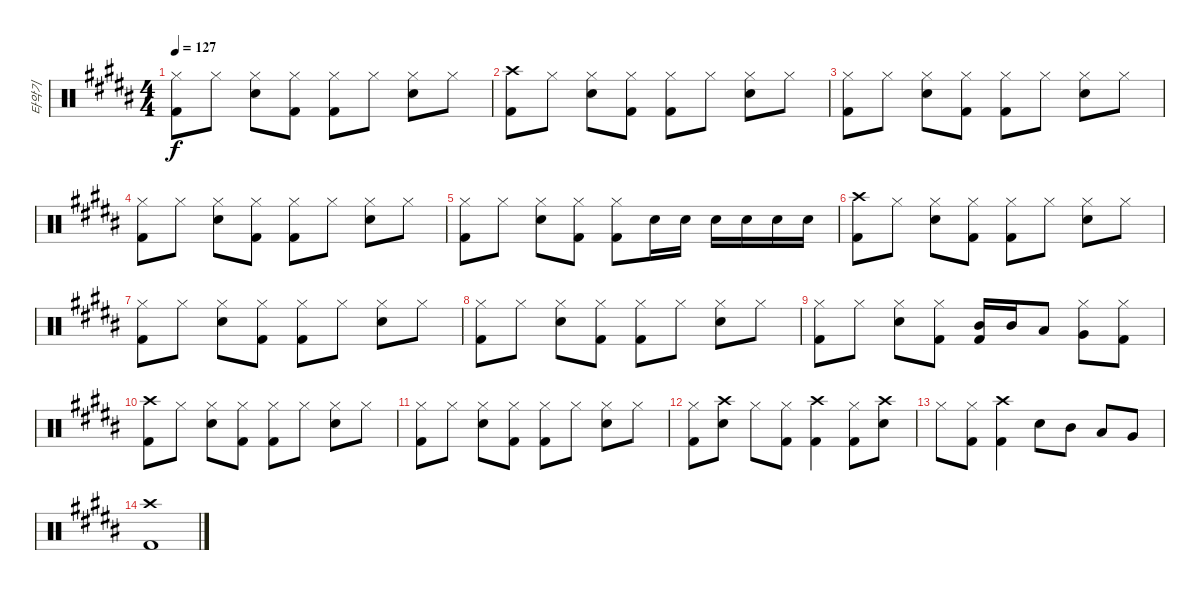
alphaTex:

\track ("타악기" "타악기") {instrument percussion}
\staff {score}
\articulation defaults
\ts (4 4)
\tempo 127
\clef neutral
\ks b
("Hi-Hat (closed)" "Kick (hit) 2").8{dy f} "Hi-Hat (closed)".8 ("Hi-Hat (closed)" "Electric Snare (hit)").8 ("Hi-Hat (closed)" "Kick (hit) 2").8 ("Hi-Hat (closed)" "Kick (hit) 2").8 "Hi-Hat (closed)".8 ("Hi-Hat (closed)" "Electric Snare (hit)").8 "Hi-Hat (closed)".8 |
("Crash high (hit)" "Kick (hit) 2").8 "Hi-Hat (closed)".8 ("Hi-Hat (closed)" "Electric Snare (hit)").8 ("Hi-Hat (closed)" "Kick (hit) 2").8 ("Hi-Hat (closed)" "Kick (hit) 2").8 "Hi-Hat (closed)".8 ("Hi-Hat (closed)" "Electric Snare (hit)").8 "Hi-Hat (closed)".8 |
("Hi-Hat (closed)" "Kick (hit) 2").8 "Hi-Hat (closed)".8 ("Hi-Hat (closed)" "Electric Snare (hit)").8 ("Hi-Hat (closed)" "Kick (hit) 2").8 ("Hi-Hat (closed)" "Kick (hit) 2").8 "Hi-Hat (closed)".8 ("Hi-Hat (closed)" "Electric Snare (hit)").8 "Hi-Hat (closed)".8 |
("Hi-Hat (closed)" "Kick (hit) 2").8 "Hi-Hat (closed)".8 ("Hi-Hat (closed)" "Electric Snare (hit)").8 ("Hi-Hat (closed)" "Kick (hit) 2").8 ("Hi-Hat (closed)" "Kick (hit) 2").8 "Hi-Hat (closed)".8 ("Hi-Hat (closed)" "Electric Snare (hit)").8 "Hi-Hat (closed)".8 |
("Hi-Hat (closed)" "Kick (hit) 2").8 "Hi-Hat (closed)".8 ("Hi-Hat (closed)" "Electric Snare (hit)").8 ("Hi-Hat (closed)" "Kick (hit) 2").8 ("Hi-Hat (closed)" "Kick (hit) 2").8 "Electric Snare (hit)".16 "Electric Snare (hit)".16 "Electric Snare (hit)".16 "Electric Snare (hit)".16 "Electric Snare (hit)".16 "Electric Snare (hit)".16 |
("Crash high (hit)" "Kick (hit) 2").8 "Hi-Hat (closed)".8 ("Hi-Hat (closed)" "Electric Snare (hit)").8 ("Hi-Hat (closed)" "Kick (hit) 2").8 ("Hi-Hat (closed)" "Kick (hit) 2").8 "Hi-Hat (closed)".8 ("Hi-Hat (closed)" "Electric Snare (hit)").8 "Hi-Hat (closed)".8 |
("Hi-Hat (closed)" "Kick (hit) 2").8 "Hi-Hat (closed)".8 ("Hi-Hat (closed)" "Electric Snare (hit)").8 ("Hi-Hat (closed)" "Kick (hit) 2").8 ("Hi-Hat (closed)" "Kick (hit) 2").8 "Hi-Hat (closed)".8 ("Hi-Hat (closed)" "Electric Snare (hit)").8 "Hi-Hat (closed)".8 |
("Hi-Hat (closed)" "Kick (hit) 2").8 "Hi-Hat (closed)".8 ("Hi-Hat (closed)" "Electric Snare (hit)").8 ("Hi-Hat (closed)" "Kick (hit) 2").8 ("Hi-Hat (closed)" "Kick (hit) 2").8 "Hi-Hat (closed)".8 ("Hi-Hat (closed)" "Electric Snare (hit)").8 "Hi-Hat (closed)".8 |
("Hi-Hat (closed)" "Kick (hit) 2").8 "Hi-Hat (closed)".8 ("Hi-Hat (closed)" "Electric Snare (hit)").8 ("Hi-Hat (closed)" "Kick (hit) 2").8 ("Mid Tom (hit)" "Kick (hit) 2").16 "Mid Tom (hit)".16 "Low Tom (hit)".8 ("Hi-Hat (closed)" "Very Low Tom (hit)").8 ("Hi-Hat (closed)" "Kick (hit) 2").8 |
("Crash high (hit)" "Kick (hit) 2").8 "Hi-Hat (closed)".8 ("Hi-Hat (closed)" "Electric Snare (hit)").8 ("Hi-Hat (closed)" "Kick (hit) 2").8 ("Hi-Hat (closed)" "Kick (hit) 2").8 "Hi-Hat (closed)".8 ("Hi-Hat (closed)" "Electric Snare (hit)").8 "Hi-Hat (closed)".8 |
("Hi-Hat (closed)" "Kick (hit) 2").8 "Hi-Hat (closed)".8 ("Hi-Hat (closed)" "Electric Snare (hit)").8 ("Hi-Hat (closed)" "Kick (hit) 2").8 ("Hi-Hat (closed)" "Kick (hit) 2").8 "Hi-Hat (closed)".8 ("Hi-Hat (closed)" "Electric Snare (hit)").8 "Hi-Hat (closed)".8 |
("Hi-Hat (closed)" "Kick (hit) 2").8 ("Crash high (hit)" "Electric Snare (hit)").8 "Hi-Hat (closed)".8 ("Hi-Hat (closed)" "Kick (hit) 2").8 ("Crash high (hit)" "Kick (hit) 2").4 ("Hi-Hat (closed)" "Kick (hit) 2").8 ("Crash high (hit)" "Electric Snare (hit)").8 |
"Hi-Hat (closed)".8 ("Hi-Hat (closed)" "Kick (hit) 2").8 ("Crash high (hit)" "Kick (hit) 2").4 "Electric Snare (hit)".8 "Mid Tom (hit)".8 "Low Tom (hit)".8 "Very Low Tom (hit)".8 |
("Crash high (hit)" "Kick (hit) 2").1
